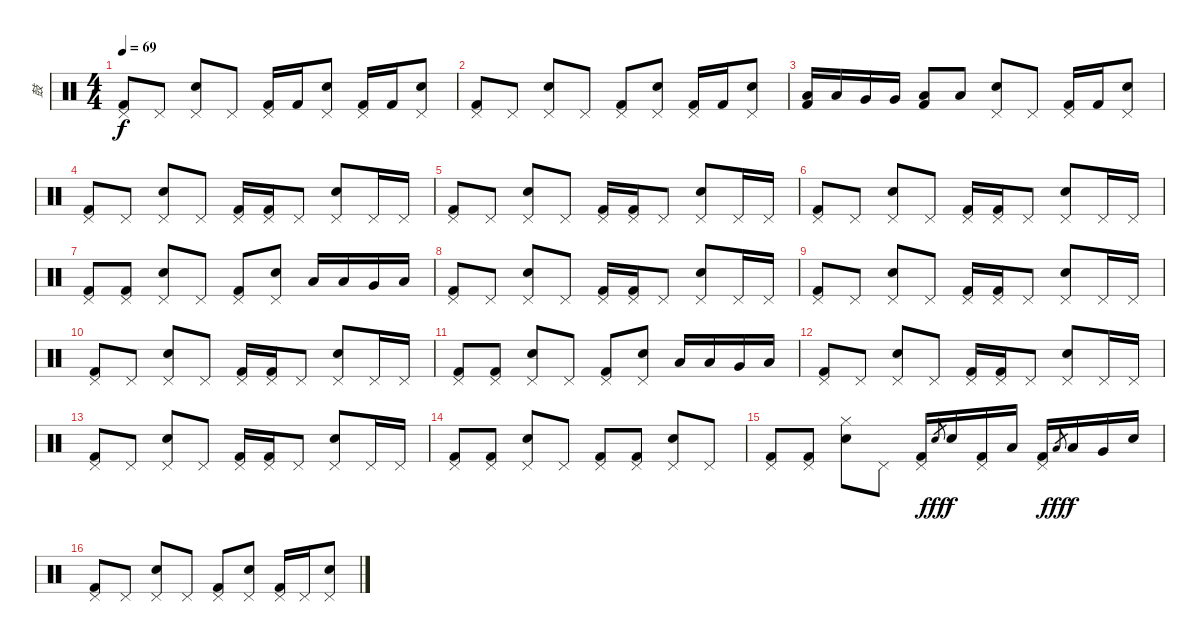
\track ("鼓" "鼓") {instrument percussion}
\staff {score}
\articulation defaults
\ts (4 4)
\tempo 69
\clef neutral
\ks c
("Pedal Hi-Hat (hit)" "Kick (hit) 2").8{dy f} "Pedal Hi-Hat (hit)".8 ("Pedal Hi-Hat (hit)" "Electric Snare (hit)").8 "Pedal Hi-Hat (hit)".8 ("Pedal Hi-Hat (hit)" "Kick (hit) 2").16 "Kick (hit) 2".16 ("Pedal Hi-Hat (hit)" "Electric Snare (hit)").8 ("Pedal Hi-Hat (hit)" "Kick (hit) 2").16 "Kick (hit) 2".16 ("Pedal Hi-Hat (hit)" "Electric Snare (hit)").8 |
("Pedal Hi-Hat (hit)" "Kick (hit) 2").8 "Pedal Hi-Hat (hit)".8 ("Pedal Hi-Hat (hit)" "Electric Snare (hit)").8 "Pedal Hi-Hat (hit)".8 ("Pedal Hi-Hat (hit)" "Kick (hit) 2").8 ("Pedal Hi-Hat (hit)" "Electric Snare (hit)").8 ("Pedal Hi-Hat (hit)" "Kick (hit) 2").16 "Kick (hit) 2".16 ("Pedal Hi-Hat (hit)" "Electric Snare (hit)").8 |
("Low Tom (hit)" "Kick (hit) 2").16 "Low Tom (hit)".16 "Very Low Tom (hit)".16 "Very Low Tom (hit)".16 ("Low Tom (hit)" "Kick (hit) 2").8 "Low Tom (hit)".8 ("Pedal Hi-Hat (hit)" "Electric Snare (hit)").8 "Pedal Hi-Hat (hit)".8 ("Pedal Hi-Hat (hit)" "Kick (hit) 2").16 "Kick (hit) 2".16 ("Pedal Hi-Hat (hit)" "Electric Snare (hit)").8 |
("Pedal Hi-Hat (hit)" "Kick (hit) 2").8 "Pedal Hi-Hat (hit)".8 ("Pedal Hi-Hat (hit)" "Electric Snare (hit)").8 "Pedal Hi-Hat (hit)".8 ("Pedal Hi-Hat (hit)" "Kick (hit) 2").16 ("Pedal Hi-Hat (hit)" "Kick (hit) 2").16 "Pedal Hi-Hat (hit)".8 ("Pedal Hi-Hat (hit)" "Electric Snare (hit)").8 "Pedal Hi-Hat (hit)".16 "Pedal Hi-Hat (hit)".16 |
("Pedal Hi-Hat (hit)" "Kick (hit) 2").8 "Pedal Hi-Hat (hit)".8 ("Pedal Hi-Hat (hit)" "Electric Snare (hit)").8 "Pedal Hi-Hat (hit)".8 ("Pedal Hi-Hat (hit)" "Kick (hit) 2").16 ("Pedal Hi-Hat (hit)" "Kick (hit) 2").16 "Pedal Hi-Hat (hit)".8 ("Pedal Hi-Hat (hit)" "Electric Snare (hit)").8 "Pedal Hi-Hat (hit)".16 "Pedal Hi-Hat (hit)".16 |
("Pedal Hi-Hat (hit)" "Kick (hit) 2").8 "Pedal Hi-Hat (hit)".8 ("Pedal Hi-Hat (hit)" "Electric Snare (hit)").8 "Pedal Hi-Hat (hit)".8 ("Pedal Hi-Hat (hit)" "Kick (hit) 2").16 ("Pedal Hi-Hat (hit)" "Kick (hit) 2").16 "Pedal Hi-Hat (hit)".8 ("Pedal Hi-Hat (hit)" "Electric Snare (hit)").8 "Pedal Hi-Hat (hit)".16 "Pedal Hi-Hat (hit)".16 |
("Pedal Hi-Hat (hit)" "Kick (hit) 2").8 ("Pedal Hi-Hat (hit)" "Kick (hit) 2").8 ("Pedal Hi-Hat (hit)" "Electric Snare (hit)").8 "Pedal Hi-Hat (hit)".8 ("Pedal Hi-Hat (hit)" "Kick (hit) 2").8 ("Pedal Hi-Hat (hit)" "Electric Snare (hit)").8 "Low Tom (hit)".16 "Low Tom (hit)".16 "Very Low Tom (hit)".16 "Low Floor Tom (hit)".16 |
("Pedal Hi-Hat (hit)" "Kick (hit) 2").8 "Pedal Hi-Hat (hit)".8 ("Pedal Hi-Hat (hit)" "Electric Snare (hit)").8 "Pedal Hi-Hat (hit)".8 ("Pedal Hi-Hat (hit)" "Kick (hit) 2").16 ("Pedal Hi-Hat (hit)" "Kick (hit) 2").16 "Pedal Hi-Hat (hit)".8 ("Pedal Hi-Hat (hit)" "Electric Snare (hit)").8 "Pedal Hi-Hat (hit)".16 "Pedal Hi-Hat (hit)".16 |
("Pedal Hi-Hat (hit)" "Kick (hit) 2").8 "Pedal Hi-Hat (hit)".8 ("Pedal Hi-Hat (hit)" "Electric Snare (hit)").8 "Pedal Hi-Hat (hit)".8 ("Pedal Hi-Hat (hit)" "Kick (hit) 2").16 ("Pedal Hi-Hat (hit)" "Kick (hit) 2").16 "Pedal Hi-Hat (hit)".8 ("Pedal Hi-Hat (hit)" "Electric Snare (hit)").8 "Pedal Hi-Hat (hit)".16 "Pedal Hi-Hat (hit)".16 |
("Pedal Hi-Hat (hit)" "Kick (hit) 2").8 "Pedal Hi-Hat (hit)".8 ("Pedal Hi-Hat (hit)" "Electric Snare (hit)").8 "Pedal Hi-Hat (hit)".8 ("Pedal Hi-Hat (hit)" "Kick (hit) 2").16 ("Pedal Hi-Hat (hit)" "Kick (hit) 2").16 "Pedal Hi-Hat (hit)".8 ("Pedal Hi-Hat (hit)" "Electric Snare (hit)").8 "Pedal Hi-Hat (hit)".16 "Pedal Hi-Hat (hit)".16 |
("Pedal Hi-Hat (hit)" "Kick (hit) 2").8 ("Pedal Hi-Hat (hit)" "Kick (hit) 2").8 ("Pedal Hi-Hat (hit)" "Electric Snare (hit)").8 "Pedal Hi-Hat (hit)".8 ("Pedal Hi-Hat (hit)" "Kick (hit) 2").8 ("Pedal Hi-Hat (hit)" "Electric Snare (hit)").8 "Low Tom (hit)".16 "Low Tom (hit)".16 "Very Low Tom (hit)".16 "Low Floor Tom (hit)".16 |
("Pedal Hi-Hat (hit)" "Kick (hit) 2").8 "Pedal Hi-Hat (hit)".8 ("Pedal Hi-Hat (hit)" "Electric Snare (hit)").8 "Pedal Hi-Hat (hit)".8 ("Pedal Hi-Hat (hit)" "Kick (hit) 2").16 ("Pedal Hi-Hat (hit)" "Kick (hit) 2").16 "Pedal Hi-Hat (hit)".8 ("Pedal Hi-Hat (hit)" "Electric Snare (hit)").8 "Pedal Hi-Hat (hit)".16 "Pedal Hi-Hat (hit)".16 |
("Pedal Hi-Hat (hit)" "Kick (hit) 2").8 "Pedal Hi-Hat (hit)".8 ("Pedal Hi-Hat (hit)" "Electric Snare (hit)").8 "Pedal Hi-Hat (hit)".8 ("Pedal Hi-Hat (hit)" "Kick (hit) 2").16 ("Pedal Hi-Hat (hit)" "Kick (hit) 2").16 "Pedal Hi-Hat (hit)".8 ("Pedal Hi-Hat (hit)" "Electric Snare (hit)").8 "Pedal Hi-Hat (hit)".16 "Pedal Hi-Hat (hit)".16 |
("Pedal Hi-Hat (hit)" "Kick (hit) 2").8 ("Pedal Hi-Hat (hit)" "Kick (hit) 2").8 ("Pedal Hi-Hat (hit)" "Electric Snare (hit)").8 "Pedal Hi-Hat (hit)".8 ("Pedal Hi-Hat (hit)" "Kick (hit) 2").8 ("Pedal Hi-Hat (hit)" "Kick (hit) 2").8 ("Pedal Hi-Hat (hit)" "Electric Snare (hit)").8 "Pedal Hi-Hat (hit)".8 |
("Pedal Hi-Hat (hit)" "Kick (hit) 2").8 ("Pedal Hi-Hat (hit)" "Kick (hit) 2").8 ("Hi-Hat (closed)" "Electric Snare (hit)").8 "Pedal Hi-Hat (hit)".8 ("Pedal Hi-Hat (hit)" "Kick (hit) 2").16 "Electric Snare (hit)".8{gr dy fff} "Electric Snare (hit)".16{dy f} ("Pedal Hi-Hat (hit)" "Kick (hit) 2").16 "Low Tom (hit)".16 ("Pedal Hi-Hat (hit)" "Kick (hit) 2").16 "Low Tom (hit)".8{gr dy fff} "Low Tom (hit)".16{dy f} "Very Low Tom (hit)".16 "Electric Snare (hit)".16 |
("Pedal Hi-Hat (hit)" "Kick (hit) 2").8 "Pedal Hi-Hat (hit)".8 ("Pedal Hi-Hat (hit)" "Electric Snare (hit)").8 "Pedal Hi-Hat (hit)".8 ("Pedal Hi-Hat (hit)" "Kick (hit) 2").8 ("Pedal Hi-Hat (hit)" "Electric Snare (hit)").8 ("Pedal Hi-Hat (hit)" "Kick (hit) 2").16 "Pedal Hi-Hat (hit)".16 ("Pedal Hi-Hat (hit)" "Electric Snare (hit)").8
